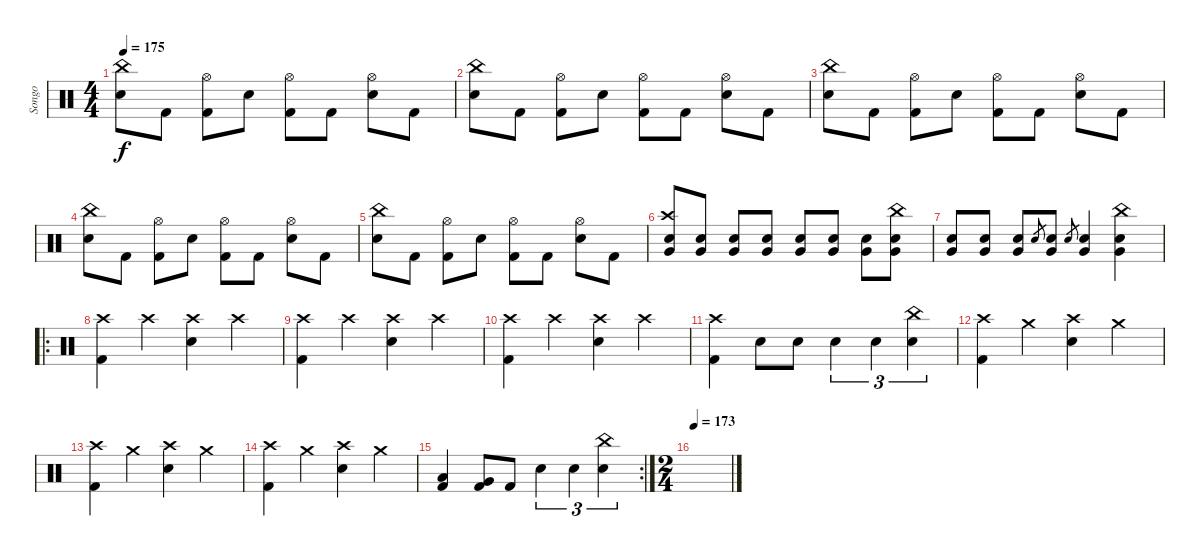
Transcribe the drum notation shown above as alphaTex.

\track ("Songo" "Songo") {instrument percussion}
\staff {score}
\articulation defaults
\ts (4 4)
\tempo 175
\clef neutral
\ks c
("China (hit)" "Electric Snare (hit)").8{dy f} "Kick (hit) 2".8 ("Hi-Hat (open)" "Kick (hit) 2").8 "Electric Snare (hit)".8 ("Hi-Hat (open)" "Kick (hit) 2").8 "Kick (hit) 2".8 ("Hi-Hat (open)" "Electric Snare (hit)").8 "Kick (hit) 2".8 |
("China (hit)" "Electric Snare (hit)").8 "Kick (hit) 2".8 ("Hi-Hat (open)" "Kick (hit) 2").8 "Electric Snare (hit)".8 ("Hi-Hat (open)" "Kick (hit) 2").8 "Kick (hit) 2".8 ("Hi-Hat (open)" "Electric Snare (hit)").8 "Kick (hit) 2".8 |
("China (hit)" "Electric Snare (hit)").8 "Kick (hit) 2".8 ("Hi-Hat (open)" "Kick (hit) 2").8 "Electric Snare (hit)".8 ("Hi-Hat (open)" "Kick (hit) 2").8 "Kick (hit) 2".8 ("Hi-Hat (open)" "Electric Snare (hit)").8 "Kick (hit) 2".8 |
("China (hit)" "Electric Snare (hit)").8 "Kick (hit) 2".8 ("Hi-Hat (open)" "Kick (hit) 2").8 "Electric Snare (hit)".8 ("Hi-Hat (open)" "Kick (hit) 2").8 "Kick (hit) 2".8 ("Hi-Hat (open)" "Electric Snare (hit)").8 "Kick (hit) 2".8 |
("China (hit)" "Electric Snare (hit)").8 "Kick (hit) 2".8 ("Hi-Hat (open)" "Kick (hit) 2").8 "Electric Snare (hit)".8 ("Hi-Hat (open)" "Kick (hit) 2").8 "Kick (hit) 2".8 ("Hi-Hat (open)" "Electric Snare (hit)").8 "Kick (hit) 2".8 |
("Crash high (hit)" "Very Low Tom (hit)" "Electric Snare (hit)").8 ("Very Low Tom (hit)" "Electric Snare (hit)").8 ("Very Low Tom (hit)" "Electric Snare (hit)").8 ("Very Low Tom (hit)" "Electric Snare (hit)").8 ("Very Low Tom (hit)" "Electric Snare (hit)").8 ("Very Low Tom (hit)" "Electric Snare (hit)").8 ("Very Low Tom (hit)" "Electric Snare (hit)").8 ("China (hit)" "Very Low Tom (hit)" "Electric Snare (hit)").8 |
("Very Low Tom (hit)" "Electric Snare (hit)").8 ("Very Low Tom (hit)" "Electric Snare (hit)").8 ("Very Low Tom (hit)" "Electric Snare (hit)").8 "Electric Snare (hit)".8{gr} ("Very Low Tom (hit)" "Electric Snare (hit)").8 "Electric Snare (hit)".8{gr} ("Very Low Tom (hit)" "Electric Snare (hit)").4 ("China (hit)" "Very Low Tom (hit)" "Electric Snare (hit)").4 |
\ro
("Crash high (hit)" "Kick (hit) 2").4 "Crash high (hit)".4 ("Crash high (hit)" "Electric Snare (hit)").4 "Crash high (hit)".4 |
("Crash high (hit)" "Kick (hit) 2").4 "Crash high (hit)".4 ("Crash high (hit)" "Electric Snare (hit)").4 "Crash high (hit)".4 |
("Crash high (hit)" "Kick (hit) 2").4 "Crash high (hit)".4 ("Crash high (hit)" "Electric Snare (hit)").4 "Crash high (hit)".4 |
("Crash high (hit)" "Kick (hit) 2").4 "Electric Snare (hit)".8 "Electric Snare (hit)".8 "Electric Snare (hit)".4{tu (3 2)} "Electric Snare (hit)".4{tu (3 2)} ("China (hit)" "Electric Snare (hit)").4{tu (3 2)} |
("Crash high (hit)" "Kick (hit) 2").4 "Crash medium (hit)".4 ("Crash high (hit)" "Electric Snare (hit)").4 "Crash medium (hit)".4 |
("Crash high (hit)" "Kick (hit) 2").4 "Crash medium (hit)".4 ("Crash high (hit)" "Electric Snare (hit)").4 "Crash medium (hit)".4 |
("Crash high (hit)" "Kick (hit) 2").4 "Crash medium (hit)".4 ("Crash high (hit)" "Electric Snare (hit)").4 "Crash medium (hit)".4 |
\rc 2
("Low Tom (hit)" "Kick (hit) 2").4 ("Very Low Tom (hit)" "Kick (hit) 2").8 "Kick (hit) 2".8 "Electric Snare (hit)".4{tu (3 2)} "Electric Snare (hit)".4{tu (3 2)} ("China (hit)" "Electric Snare (hit)").4{tu (3 2)} |
\ts (2 4)
\tempo 173
